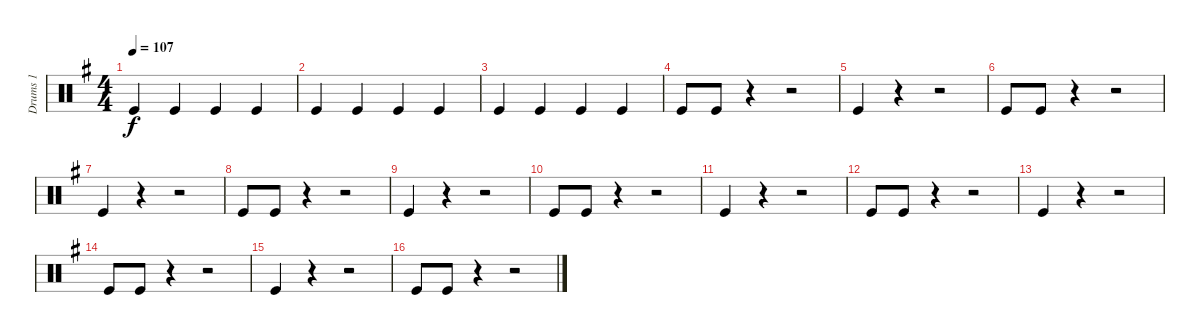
\track ("Drums 1" "Drums 1") {instrument percussion}
\staff {score}
\articulation defaults
\ts (4 4)
\tempo 107
\clef neutral
\ks g "Kick (hit)".4{dy f} "Kick (hit)".4 "Kick (hit)".4 "Kick (hit)".4
|
"Kick (hit)".4 "Kick (hit)".4 "Kick (hit)".4 "Kick (hit)".4 |
"Kick (hit)".4 "Kick (hit)".4 "Kick (hit)".4 "Kick (hit)".4 |
"Kick (hit)".8 "Kick (hit)".8 r.4 r.2 |
"Kick (hit)".4 r.4 r.2 |
"Kick (hit)".8 "Kick (hit)".8 r.4 r.2 |
"Kick (hit)".4 r.4 r.2 |
"Kick (hit)".8 "Kick (hit)".8 r.4 r.2 |
"Kick (hit)".4 r.4 r.2 |
"Kick (hit)".8 "Kick (hit)".8 r.4 r.2 |
"Kick (hit)".4 r.4 r.2 |
"Kick (hit)".8 "Kick (hit)".8 r.4 r.2 |
"Kick (hit)".4 r.4 r.2 |
"Kick (hit)".8 "Kick (hit)".8 r.4 r.2 |
"Kick (hit)".4 r.4 r.2 |
"Kick (hit)".8 "Kick (hit)".8 r.4 r.2
